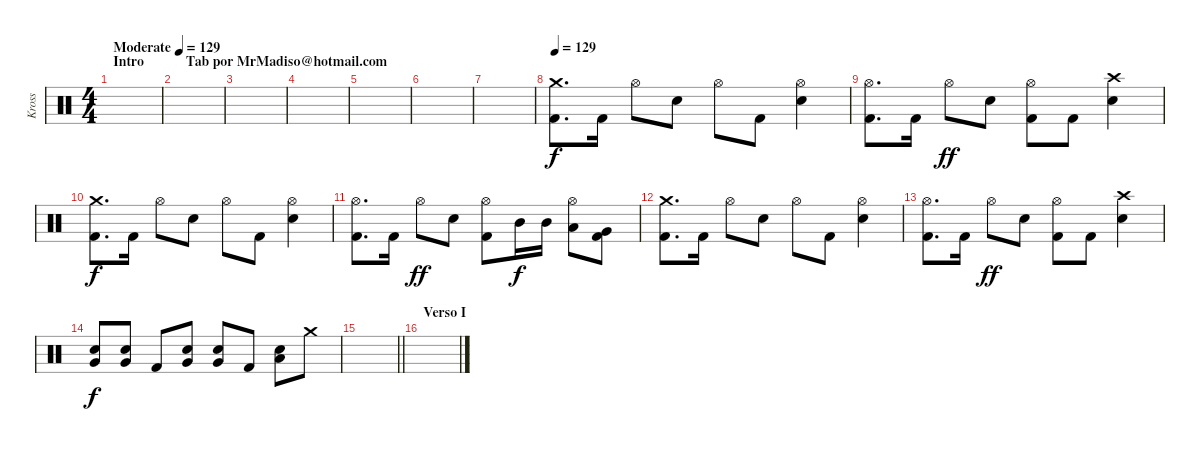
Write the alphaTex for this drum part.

\track ("Kross" "Kross") {instrument percussion}
\staff {score}
\articulation defaults
\ts (4 4)
\section ("" "Intro            Tab por MrMadiso@hotmail.com")
\tempo (129 "Moderate")
\tempo 120
\tempo (129 "Moderate")
\clef neutral
\ks c
|
|
|
|
|
|
|
\tempo 129
("Crash medium (hit)" "Kick (hit) 2").8{d} "Kick (hit) 2".16 "Hi-Hat (open)".8 "Electric Snare (hit)".8 "Hi-Hat (open)".8 "Kick (hit) 2".8 ("Hi-Hat (open)" "Electric Snare (hit)").4 |
("Hi-Hat (open)" "Kick (hit) 2").8{d} "Kick (hit) 2".16 "Hi-Hat (open)".8{dy ff} "Electric Snare (hit)".8 ("Hi-Hat (open)" "Kick (hit) 2").8 "Kick (hit) 2".8 ("Crash high (hit)" "Electric Snare (hit)").4 |
("Crash medium (hit)" "Kick (hit) 2").8{d dy f} "Kick (hit) 2".16 "Hi-Hat (open)".8 "Electric Snare (hit)".8 "Hi-Hat (open)".8 "Kick (hit) 2".8 ("Hi-Hat (open)" "Electric Snare (hit)").4 |
("Hi-Hat (open)" "Kick (hit) 2").8{d} "Kick (hit) 2".16 "Hi-Hat (open)".8{dy ff} "Electric Snare (hit)".8 ("Hi-Hat (open)" "Kick (hit) 2").8 "Mid Tom (hit)".16{dy f} "Mid Tom (hit)".16 ("Hi-Hat (open)" "Low Tom (hit)").8 ("Very Low Tom (hit)" "Kick (hit) 2").8 |
("Crash medium (hit)" "Kick (hit) 2").8{d} "Kick (hit) 2".16 "Hi-Hat (open)".8 "Electric Snare (hit)".8 "Hi-Hat (open)".8 "Kick (hit) 2".8 ("Hi-Hat (open)" "Electric Snare (hit)").4 |
("Hi-Hat (open)" "Kick (hit) 2").8{d} "Kick (hit) 2".16 "Hi-Hat (open)".8{dy ff} "Electric Snare (hit)".8 ("Hi-Hat (open)" "Kick (hit) 2").8 "Kick (hit) 2".8 ("Crash high (hit)" "Electric Snare (hit)").4 |
("Electric Snare (hit)" "Very Low Tom (hit)").8{dy f} ("Electric Snare (hit)" "Very Low Tom (hit)").8 "Kick (hit) 2".8 ("Electric Snare (hit)" "Very Low Tom (hit)").8 ("Electric Snare (hit)" "Very Low Tom (hit)").8 "Kick (hit) 2".8 ("Electric Snare (hit)" "Low Floor Tom (hit)").8 "Crash medium (hit)".8 |
\barLineRight lightlight
|
\section ("" "Verso I")
